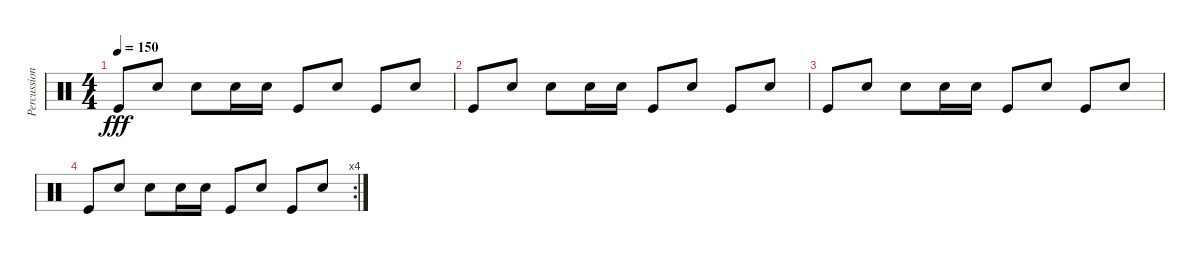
\track ("Percussions" "Percussion") {instrument percussion}
\staff {score}
\articulation defaults
\ts (4 4)
\tempo 150
\clef neutral
\ks c "Kick (hit)".8{dy fff} "Snare (hit) 2".8 "Snare (hit) 2".8 "Snare (hit) 2".16 "Snare (hit) 2".16 "Kick (hit)".8 "Snare (hit) 2".8 "Kick (hit)".8 "Snare (hit) 2".8
|
"Kick (hit)".8 "Snare (hit) 2".8 "Snare (hit) 2".8 "Snare (hit) 2".16 "Snare (hit) 2".16 "Kick (hit)".8 "Snare (hit) 2".8 "Kick (hit)".8 "Snare (hit) 2".8 |
"Kick (hit)".8 "Snare (hit) 2".8 "Snare (hit) 2".8 "Snare (hit) 2".16 "Snare (hit) 2".16 "Kick (hit)".8 "Snare (hit) 2".8 "Kick (hit)".8 "Snare (hit) 2".8 |
\rc 4 "Kick (hit)".8 "Snare (hit) 2".8 "Snare (hit) 2".8 "Snare (hit) 2".16 "Snare (hit) 2".16 "Kick (hit)".8 "Snare (hit) 2".8 "Kick (hit)".8 "Snare (hit) 2".8
